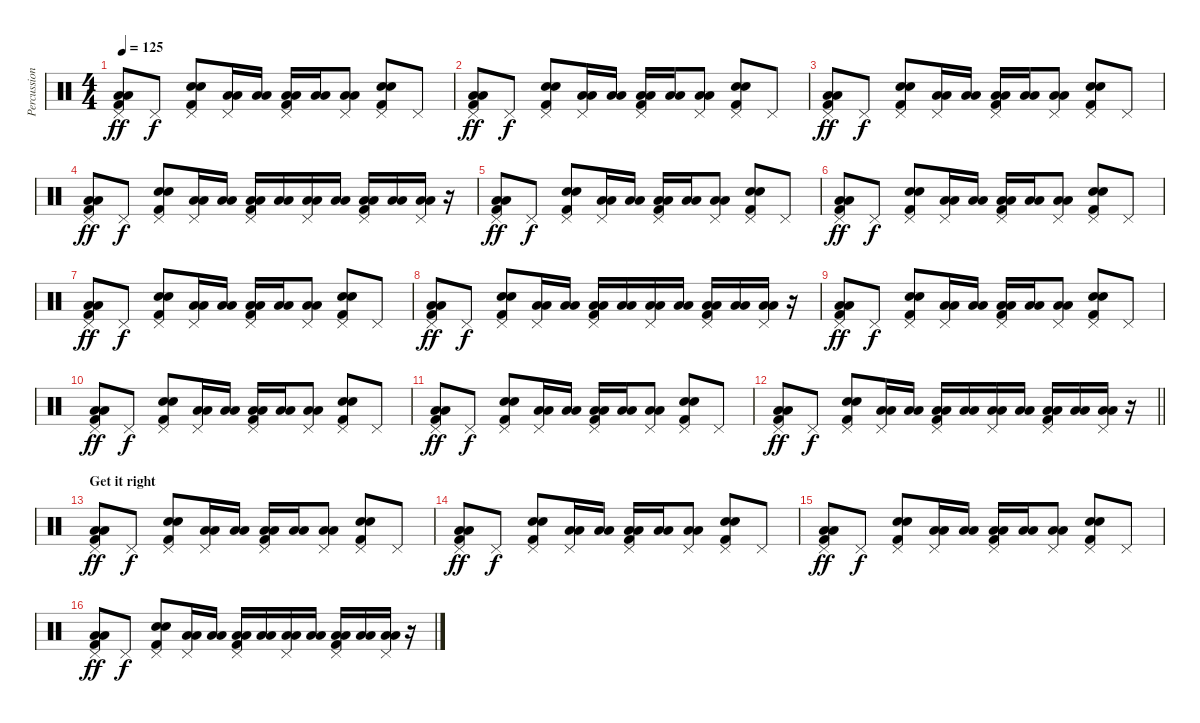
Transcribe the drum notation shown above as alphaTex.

\track ("Percussion" "Percussion") {instrument percussion}
\staff {score}
\articulation defaults
\ts (4 4)
\tempo 125
\clef neutral
\ks c
("Pedal Hi-Hat (hit)" "Low Floor Tom (hit)" "Low Floor Tom (hit)" "Kick (hit) 2").8{dy ff} "Pedal Hi-Hat (hit)".8{dy f} ("Pedal Hi-Hat (hit)" "Electric Snare (hit)" "Electric Snare (hit)" "Kick (hit) 2").8 ("Pedal Hi-Hat (hit)" "Low Floor Tom (hit)" "Low Floor Tom (hit)").16 ("Low Tom (hit)" "Low Tom (hit)").16 ("Pedal Hi-Hat (hit)" "Low Floor Tom (hit)" "Low Floor Tom (hit)" "Kick (hit) 2").16 ("Low Floor Tom (hit)" "Low Floor Tom (hit)").16 ("Pedal Hi-Hat (hit)" "Low Floor Tom (hit)" "Low Floor Tom (hit)").8 ("Pedal Hi-Hat (hit)" "Electric Snare (hit)" "Electric Snare (hit)" "Kick (hit) 2").8 "Pedal Hi-Hat (hit)".8 |
("Pedal Hi-Hat (hit)" "Low Floor Tom (hit)" "Low Floor Tom (hit)" "Kick (hit) 2").8{dy ff} "Pedal Hi-Hat (hit)".8{dy f} ("Pedal Hi-Hat (hit)" "Electric Snare (hit)" "Electric Snare (hit)" "Kick (hit) 2").8 ("Pedal Hi-Hat (hit)" "Low Floor Tom (hit)" "Low Floor Tom (hit)").16 ("Low Tom (hit)" "Low Tom (hit)").16 ("Pedal Hi-Hat (hit)" "Low Floor Tom (hit)" "Low Floor Tom (hit)" "Kick (hit) 2").16 ("Low Floor Tom (hit)" "Low Floor Tom (hit)").16 ("Pedal Hi-Hat (hit)" "Low Floor Tom (hit)" "Low Floor Tom (hit)").8 ("Pedal Hi-Hat (hit)" "Electric Snare (hit)" "Electric Snare (hit)" "Kick (hit) 2").8 "Pedal Hi-Hat (hit)".8 |
("Pedal Hi-Hat (hit)" "Low Floor Tom (hit)" "Low Floor Tom (hit)" "Kick (hit) 2").8{dy ff} "Pedal Hi-Hat (hit)".8{dy f} ("Pedal Hi-Hat (hit)" "Electric Snare (hit)" "Electric Snare (hit)" "Kick (hit) 2").8 ("Pedal Hi-Hat (hit)" "Low Floor Tom (hit)" "Low Floor Tom (hit)").16 ("Low Tom (hit)" "Low Tom (hit)").16 ("Pedal Hi-Hat (hit)" "Low Floor Tom (hit)" "Low Floor Tom (hit)" "Kick (hit) 2").16 ("Low Floor Tom (hit)" "Low Floor Tom (hit)").16 ("Pedal Hi-Hat (hit)" "Low Floor Tom (hit)" "Low Floor Tom (hit)").8 ("Pedal Hi-Hat (hit)" "Electric Snare (hit)" "Electric Snare (hit)" "Kick (hit) 2").8 "Pedal Hi-Hat (hit)".8 |
("Pedal Hi-Hat (hit)" "Low Floor Tom (hit)" "Low Floor Tom (hit)" "Kick (hit) 2").8{dy ff} "Pedal Hi-Hat (hit)".8{dy f} ("Pedal Hi-Hat (hit)" "Electric Snare (hit)" "Electric Snare (hit)" "Kick (hit) 2").8 ("Pedal Hi-Hat (hit)" "Low Floor Tom (hit)" "Low Floor Tom (hit)").16 ("Low Tom (hit)" "Low Tom (hit)").16 ("Pedal Hi-Hat (hit)" "Low Floor Tom (hit)" "Low Floor Tom (hit)" "Kick (hit) 2").16 ("Low Floor Tom (hit)" "Low Floor Tom (hit)").16 ("Pedal Hi-Hat (hit)" "Low Floor Tom (hit)" "Low Floor Tom (hit)").16 ("Low Tom (hit)" "Low Tom (hit)").16 ("Pedal Hi-Hat (hit)" "Low Floor Tom (hit)" "Low Floor Tom (hit)" "Kick (hit) 2").16 ("Low Floor Tom (hit)" "Low Floor Tom (hit)").16 ("Pedal Hi-Hat (hit)" "Low Floor Tom (hit)" "Low Floor Tom (hit)").16 r.16 |
("Pedal Hi-Hat (hit)" "Low Floor Tom (hit)" "Low Floor Tom (hit)" "Kick (hit) 2").8{dy ff} "Pedal Hi-Hat (hit)".8{dy f} ("Pedal Hi-Hat (hit)" "Electric Snare (hit)" "Electric Snare (hit)" "Kick (hit) 2").8 ("Pedal Hi-Hat (hit)" "Low Floor Tom (hit)" "Low Floor Tom (hit)").16 ("Low Tom (hit)" "Low Tom (hit)").16 ("Pedal Hi-Hat (hit)" "Low Floor Tom (hit)" "Low Floor Tom (hit)" "Kick (hit) 2").16 ("Low Floor Tom (hit)" "Low Floor Tom (hit)").16 ("Pedal Hi-Hat (hit)" "Low Floor Tom (hit)" "Low Floor Tom (hit)").8 ("Pedal Hi-Hat (hit)" "Electric Snare (hit)" "Electric Snare (hit)" "Kick (hit) 2").8 "Pedal Hi-Hat (hit)".8 |
("Pedal Hi-Hat (hit)" "Low Floor Tom (hit)" "Low Floor Tom (hit)" "Kick (hit) 2").8{dy ff} "Pedal Hi-Hat (hit)".8{dy f} ("Pedal Hi-Hat (hit)" "Electric Snare (hit)" "Electric Snare (hit)" "Kick (hit) 2").8 ("Pedal Hi-Hat (hit)" "Low Floor Tom (hit)" "Low Floor Tom (hit)").16 ("Low Tom (hit)" "Low Tom (hit)").16 ("Pedal Hi-Hat (hit)" "Low Floor Tom (hit)" "Low Floor Tom (hit)" "Kick (hit) 2").16 ("Low Floor Tom (hit)" "Low Floor Tom (hit)").16 ("Pedal Hi-Hat (hit)" "Low Floor Tom (hit)" "Low Floor Tom (hit)").8 ("Pedal Hi-Hat (hit)" "Electric Snare (hit)" "Electric Snare (hit)" "Kick (hit) 2").8 "Pedal Hi-Hat (hit)".8 |
("Pedal Hi-Hat (hit)" "Low Floor Tom (hit)" "Low Floor Tom (hit)" "Kick (hit) 2").8{dy ff} "Pedal Hi-Hat (hit)".8{dy f} ("Pedal Hi-Hat (hit)" "Electric Snare (hit)" "Electric Snare (hit)" "Kick (hit) 2").8 ("Pedal Hi-Hat (hit)" "Low Floor Tom (hit)" "Low Floor Tom (hit)").16 ("Low Tom (hit)" "Low Tom (hit)").16 ("Pedal Hi-Hat (hit)" "Low Floor Tom (hit)" "Low Floor Tom (hit)" "Kick (hit) 2").16 ("Low Floor Tom (hit)" "Low Floor Tom (hit)").16 ("Pedal Hi-Hat (hit)" "Low Floor Tom (hit)" "Low Floor Tom (hit)").8 ("Pedal Hi-Hat (hit)" "Electric Snare (hit)" "Electric Snare (hit)" "Kick (hit) 2").8 "Pedal Hi-Hat (hit)".8 |
("Pedal Hi-Hat (hit)" "Low Floor Tom (hit)" "Low Floor Tom (hit)" "Kick (hit) 2").8{dy ff} "Pedal Hi-Hat (hit)".8{dy f} ("Pedal Hi-Hat (hit)" "Electric Snare (hit)" "Electric Snare (hit)" "Kick (hit) 2").8 ("Pedal Hi-Hat (hit)" "Low Floor Tom (hit)" "Low Floor Tom (hit)").16 ("Low Tom (hit)" "Low Tom (hit)").16 ("Pedal Hi-Hat (hit)" "Low Floor Tom (hit)" "Low Floor Tom (hit)" "Kick (hit) 2").16 ("Low Floor Tom (hit)" "Low Floor Tom (hit)").16 ("Pedal Hi-Hat (hit)" "Low Floor Tom (hit)" "Low Floor Tom (hit)").16 ("Low Tom (hit)" "Low Tom (hit)").16 ("Pedal Hi-Hat (hit)" "Low Floor Tom (hit)" "Low Floor Tom (hit)" "Kick (hit) 2").16 ("Low Floor Tom (hit)" "Low Floor Tom (hit)").16 ("Pedal Hi-Hat (hit)" "Low Floor Tom (hit)" "Low Floor Tom (hit)").16 r.16 |
("Pedal Hi-Hat (hit)" "Low Floor Tom (hit)" "Low Floor Tom (hit)" "Kick (hit) 2").8{dy ff} "Pedal Hi-Hat (hit)".8{dy f} ("Pedal Hi-Hat (hit)" "Electric Snare (hit)" "Electric Snare (hit)" "Kick (hit) 2").8 ("Pedal Hi-Hat (hit)" "Low Floor Tom (hit)" "Low Floor Tom (hit)").16 ("Low Tom (hit)" "Low Tom (hit)").16 ("Pedal Hi-Hat (hit)" "Low Floor Tom (hit)" "Low Floor Tom (hit)" "Kick (hit) 2").16 ("Low Floor Tom (hit)" "Low Floor Tom (hit)").16 ("Pedal Hi-Hat (hit)" "Low Floor Tom (hit)" "Low Floor Tom (hit)").8 ("Pedal Hi-Hat (hit)" "Electric Snare (hit)" "Electric Snare (hit)" "Kick (hit) 2").8 "Pedal Hi-Hat (hit)".8 |
("Pedal Hi-Hat (hit)" "Low Floor Tom (hit)" "Low Floor Tom (hit)" "Kick (hit) 2").8{dy ff} "Pedal Hi-Hat (hit)".8{dy f} ("Pedal Hi-Hat (hit)" "Electric Snare (hit)" "Electric Snare (hit)" "Kick (hit) 2").8 ("Pedal Hi-Hat (hit)" "Low Floor Tom (hit)" "Low Floor Tom (hit)").16 ("Low Tom (hit)" "Low Tom (hit)").16 ("Pedal Hi-Hat (hit)" "Low Floor Tom (hit)" "Low Floor Tom (hit)" "Kick (hit) 2").16 ("Low Floor Tom (hit)" "Low Floor Tom (hit)").16 ("Pedal Hi-Hat (hit)" "Low Floor Tom (hit)" "Low Floor Tom (hit)").8 ("Pedal Hi-Hat (hit)" "Electric Snare (hit)" "Electric Snare (hit)" "Kick (hit) 2").8 "Pedal Hi-Hat (hit)".8 |
("Pedal Hi-Hat (hit)" "Low Floor Tom (hit)" "Low Floor Tom (hit)" "Kick (hit) 2").8{dy ff} "Pedal Hi-Hat (hit)".8{dy f} ("Pedal Hi-Hat (hit)" "Electric Snare (hit)" "Electric Snare (hit)" "Kick (hit) 2").8 ("Pedal Hi-Hat (hit)" "Low Floor Tom (hit)" "Low Floor Tom (hit)").16 ("Low Tom (hit)" "Low Tom (hit)").16 ("Pedal Hi-Hat (hit)" "Low Floor Tom (hit)" "Low Floor Tom (hit)" "Kick (hit) 2").16 ("Low Floor Tom (hit)" "Low Floor Tom (hit)").16 ("Pedal Hi-Hat (hit)" "Low Floor Tom (hit)" "Low Floor Tom (hit)").8 ("Pedal Hi-Hat (hit)" "Electric Snare (hit)" "Electric Snare (hit)" "Kick (hit) 2").8 "Pedal Hi-Hat (hit)".8 |
\barLineRight lightlight
("Pedal Hi-Hat (hit)" "Low Floor Tom (hit)" "Low Floor Tom (hit)" "Kick (hit) 2").8{dy ff} "Pedal Hi-Hat (hit)".8{dy f} ("Pedal Hi-Hat (hit)" "Electric Snare (hit)" "Electric Snare (hit)" "Kick (hit) 2").8 ("Pedal Hi-Hat (hit)" "Low Floor Tom (hit)" "Low Floor Tom (hit)").16 ("Low Tom (hit)" "Low Tom (hit)").16 ("Pedal Hi-Hat (hit)" "Low Floor Tom (hit)" "Low Floor Tom (hit)" "Kick (hit) 2").16 ("Low Floor Tom (hit)" "Low Floor Tom (hit)").16 ("Pedal Hi-Hat (hit)" "Low Floor Tom (hit)" "Low Floor Tom (hit)").16 ("Low Tom (hit)" "Low Tom (hit)").16 ("Pedal Hi-Hat (hit)" "Low Floor Tom (hit)" "Low Floor Tom (hit)" "Kick (hit) 2").16 ("Low Floor Tom (hit)" "Low Floor Tom (hit)").16 ("Pedal Hi-Hat (hit)" "Low Floor Tom (hit)" "Low Floor Tom (hit)").16 r.16 |
\section ("" "Get it right")
("Pedal Hi-Hat (hit)" "Low Floor Tom (hit)" "Low Floor Tom (hit)" "Kick (hit) 2").8{dy ff} "Pedal Hi-Hat (hit)".8{dy f} ("Pedal Hi-Hat (hit)" "Electric Snare (hit)" "Electric Snare (hit)" "Kick (hit) 2").8 ("Pedal Hi-Hat (hit)" "Low Floor Tom (hit)" "Low Floor Tom (hit)").16 ("Low Tom (hit)" "Low Tom (hit)").16 ("Pedal Hi-Hat (hit)" "Low Floor Tom (hit)" "Low Floor Tom (hit)" "Kick (hit) 2").16 ("Low Floor Tom (hit)" "Low Floor Tom (hit)").16 ("Pedal Hi-Hat (hit)" "Low Floor Tom (hit)" "Low Floor Tom (hit)").8 ("Pedal Hi-Hat (hit)" "Electric Snare (hit)" "Electric Snare (hit)" "Kick (hit) 2").8 "Pedal Hi-Hat (hit)".8 |
("Pedal Hi-Hat (hit)" "Low Floor Tom (hit)" "Low Floor Tom (hit)" "Kick (hit) 2").8{dy ff} "Pedal Hi-Hat (hit)".8{dy f} ("Pedal Hi-Hat (hit)" "Electric Snare (hit)" "Electric Snare (hit)" "Kick (hit) 2").8 ("Pedal Hi-Hat (hit)" "Low Floor Tom (hit)" "Low Floor Tom (hit)").16 ("Low Tom (hit)" "Low Tom (hit)").16 ("Pedal Hi-Hat (hit)" "Low Floor Tom (hit)" "Low Floor Tom (hit)" "Kick (hit) 2").16 ("Low Floor Tom (hit)" "Low Floor Tom (hit)").16 ("Pedal Hi-Hat (hit)" "Low Floor Tom (hit)" "Low Floor Tom (hit)").8 ("Pedal Hi-Hat (hit)" "Electric Snare (hit)" "Electric Snare (hit)" "Kick (hit) 2").8 "Pedal Hi-Hat (hit)".8 |
("Pedal Hi-Hat (hit)" "Low Floor Tom (hit)" "Low Floor Tom (hit)" "Kick (hit) 2").8{dy ff} "Pedal Hi-Hat (hit)".8{dy f} ("Pedal Hi-Hat (hit)" "Electric Snare (hit)" "Electric Snare (hit)" "Kick (hit) 2").8 ("Pedal Hi-Hat (hit)" "Low Floor Tom (hit)" "Low Floor Tom (hit)").16 ("Low Tom (hit)" "Low Tom (hit)").16 ("Pedal Hi-Hat (hit)" "Low Floor Tom (hit)" "Low Floor Tom (hit)" "Kick (hit) 2").16 ("Low Floor Tom (hit)" "Low Floor Tom (hit)").16 ("Pedal Hi-Hat (hit)" "Low Floor Tom (hit)" "Low Floor Tom (hit)").8 ("Pedal Hi-Hat (hit)" "Electric Snare (hit)" "Electric Snare (hit)" "Kick (hit) 2").8 "Pedal Hi-Hat (hit)".8 |
("Pedal Hi-Hat (hit)" "Low Floor Tom (hit)" "Low Floor Tom (hit)" "Kick (hit) 2").8{dy ff} "Pedal Hi-Hat (hit)".8{dy f} ("Pedal Hi-Hat (hit)" "Electric Snare (hit)" "Electric Snare (hit)" "Kick (hit) 2").8 ("Pedal Hi-Hat (hit)" "Low Floor Tom (hit)" "Low Floor Tom (hit)").16 ("Low Tom (hit)" "Low Tom (hit)").16 ("Pedal Hi-Hat (hit)" "Low Floor Tom (hit)" "Low Floor Tom (hit)" "Kick (hit) 2").16 ("Low Floor Tom (hit)" "Low Floor Tom (hit)").16 ("Pedal Hi-Hat (hit)" "Low Floor Tom (hit)" "Low Floor Tom (hit)").16 ("Low Tom (hit)" "Low Tom (hit)").16 ("Pedal Hi-Hat (hit)" "Low Floor Tom (hit)" "Low Floor Tom (hit)" "Kick (hit) 2").16 ("Low Floor Tom (hit)" "Low Floor Tom (hit)").16 ("Pedal Hi-Hat (hit)" "Low Floor Tom (hit)" "Low Floor Tom (hit)").16 r.16
